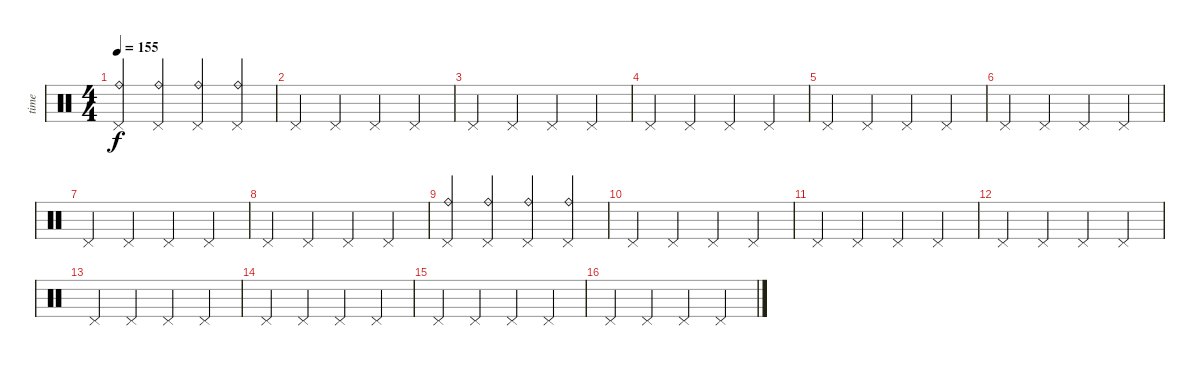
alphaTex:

\track ("time" "time") {instrument percussion}
\staff {score}
\articulation defaults
\ts (4 4)
\tempo 155
\clef neutral
\ks c
("Pedal Hi-Hat (hit)" "Ride (bell)").4{dy f} ("Pedal Hi-Hat (hit)" "Ride (bell)").4 ("Pedal Hi-Hat (hit)" "Ride (bell)").4 ("Pedal Hi-Hat (hit)" "Ride (bell)").4 |
"Pedal Hi-Hat (hit)".4 "Pedal Hi-Hat (hit)".4 "Pedal Hi-Hat (hit)".4 "Pedal Hi-Hat (hit)".4 |
"Pedal Hi-Hat (hit)".4 "Pedal Hi-Hat (hit)".4 "Pedal Hi-Hat (hit)".4 "Pedal Hi-Hat (hit)".4 |
"Pedal Hi-Hat (hit)".4 "Pedal Hi-Hat (hit)".4 "Pedal Hi-Hat (hit)".4 "Pedal Hi-Hat (hit)".4 |
"Pedal Hi-Hat (hit)".4 "Pedal Hi-Hat (hit)".4 "Pedal Hi-Hat (hit)".4 "Pedal Hi-Hat (hit)".4 |
"Pedal Hi-Hat (hit)".4 "Pedal Hi-Hat (hit)".4 "Pedal Hi-Hat (hit)".4 "Pedal Hi-Hat (hit)".4 |
"Pedal Hi-Hat (hit)".4 "Pedal Hi-Hat (hit)".4 "Pedal Hi-Hat (hit)".4 "Pedal Hi-Hat (hit)".4 |
"Pedal Hi-Hat (hit)".4 "Pedal Hi-Hat (hit)".4 "Pedal Hi-Hat (hit)".4 "Pedal Hi-Hat (hit)".4 |
("Pedal Hi-Hat (hit)" "Ride (bell)").4 ("Pedal Hi-Hat (hit)" "Ride (bell)").4 ("Pedal Hi-Hat (hit)" "Ride (bell)").4 ("Pedal Hi-Hat (hit)" "Ride (bell)").4 |
"Pedal Hi-Hat (hit)".4 "Pedal Hi-Hat (hit)".4 "Pedal Hi-Hat (hit)".4 "Pedal Hi-Hat (hit)".4 |
"Pedal Hi-Hat (hit)".4 "Pedal Hi-Hat (hit)".4 "Pedal Hi-Hat (hit)".4 "Pedal Hi-Hat (hit)".4 |
"Pedal Hi-Hat (hit)".4 "Pedal Hi-Hat (hit)".4 "Pedal Hi-Hat (hit)".4 "Pedal Hi-Hat (hit)".4 |
"Pedal Hi-Hat (hit)".4 "Pedal Hi-Hat (hit)".4 "Pedal Hi-Hat (hit)".4 "Pedal Hi-Hat (hit)".4 |
"Pedal Hi-Hat (hit)".4 "Pedal Hi-Hat (hit)".4 "Pedal Hi-Hat (hit)".4 "Pedal Hi-Hat (hit)".4 |
"Pedal Hi-Hat (hit)".4 "Pedal Hi-Hat (hit)".4 "Pedal Hi-Hat (hit)".4 "Pedal Hi-Hat (hit)".4 |
"Pedal Hi-Hat (hit)".4 "Pedal Hi-Hat (hit)".4 "Pedal Hi-Hat (hit)".4 "Pedal Hi-Hat (hit)".4
